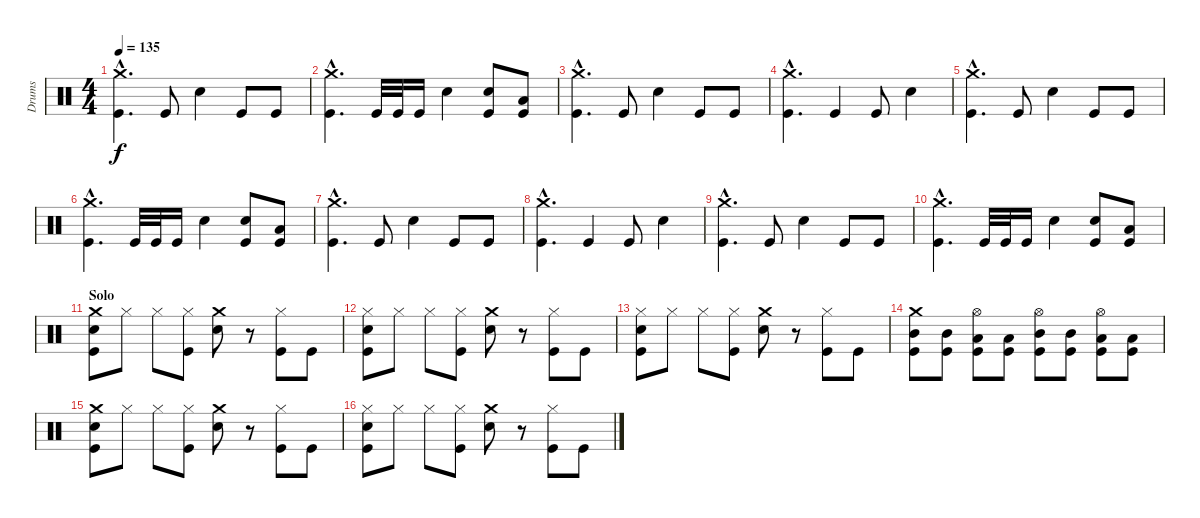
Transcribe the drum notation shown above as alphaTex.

\track ("Drums" "Drums") {instrument percussion}
\staff {score}
\articulation defaults
\ts (4 4)
\tempo 135
\clef neutral
\ks c
("Crash medium (hit)"{hac} "Kick (hit)"{hac}).4{d dy f} "Kick (hit)".8 "Snare (hit) 2".4 "Kick (hit)".8 "Kick (hit)".8 |
("Crash medium (hit)"{hac} "Kick (hit)"{hac}).4{d} "Kick (hit)".32 "Kick (hit)".32 "Kick (hit)".16 "Snare (hit) 2".4 ("Snare (hit) 2" "Kick (hit)").8 ("Low Tom (hit)" "Kick (hit)").8 |
("Crash medium (hit)"{hac} "Kick (hit)"{hac}).4{d} "Kick (hit)".8 "Snare (hit) 2".4 "Kick (hit)".8 "Kick (hit)".8 |
("Crash medium (hit)"{hac} "Kick (hit)"{hac}).4{d} "Kick (hit)".4 "Kick (hit)".8 "Snare (hit) 2".4 |
("Crash medium (hit)"{hac} "Kick (hit)"{hac}).4{d} "Kick (hit)".8 "Snare (hit) 2".4 "Kick (hit)".8 "Kick (hit)".8 |
("Crash medium (hit)"{hac} "Kick (hit)"{hac}).4{d} "Kick (hit)".32 "Kick (hit)".32 "Kick (hit)".16 "Snare (hit) 2".4 ("Snare (hit) 2" "Kick (hit)").8 ("Low Tom (hit)" "Kick (hit)").8 |
("Crash medium (hit)"{hac} "Kick (hit)"{hac}).4{d} "Kick (hit)".8 "Snare (hit) 2".4 "Kick (hit)".8 "Kick (hit)".8 |
("Crash medium (hit)"{hac} "Kick (hit)"{hac}).4{d} "Kick (hit)".4 "Kick (hit)".8 "Snare (hit) 2".4 |
("Crash medium (hit)"{hac} "Kick (hit)"{hac}).4{d} "Kick (hit)".8 "Snare (hit) 2".4 "Kick (hit)".8 "Kick (hit)".8 |
("Crash medium (hit)"{hac} "Kick (hit)"{hac}).4{d} "Kick (hit)".32 "Kick (hit)".32 "Kick (hit)".16 "Snare (hit) 2".4 ("Snare (hit) 2" "Kick (hit)").8 ("Low Tom (hit)" "Kick (hit)").8 |
\section ("" "Solo")
("Crash medium (hit)" "Snare (hit) 2" "Kick (hit)").8 "Hi-Hat (closed)".8 "Hi-Hat (closed)".8 ("Hi-Hat (closed)" "Kick (hit)").8 ("Crash medium (hit)" "Snare (hit) 2").8 r.8 ("Hi-Hat (closed)" "Kick (hit)").8 "Kick (hit)".8 |
("Hi-Hat (closed)" "Snare (hit) 2" "Kick (hit)").8 "Hi-Hat (closed)".8 "Hi-Hat (closed)".8 ("Hi-Hat (closed)" "Kick (hit)").8 ("Crash medium (hit)" "Snare (hit) 2").8 r.8 ("Hi-Hat (closed)" "Kick (hit)").8 "Kick (hit)".8 |
("Hi-Hat (closed)" "Snare (hit) 2" "Kick (hit)").8 "Hi-Hat (closed)".8 "Hi-Hat (closed)".8 ("Hi-Hat (closed)" "Kick (hit)").8 ("Crash medium (hit)" "Snare (hit) 2").8 r.8 ("Hi-Hat (closed)" "Kick (hit)").8 "Kick (hit)".8 |
("Crash medium (hit)" "Mid Tom (hit)" "Kick (hit)").8 ("Mid Tom (hit)" "Kick (hit)").8 ("Hi-Hat (open)" "Low Tom (hit)" "Kick (hit)").8 ("Low Tom (hit)" "Kick (hit)").8 ("Hi-Hat (open)" "Mid Tom (hit)" "Kick (hit)").8 ("Mid Tom (hit)" "Kick (hit)").8 ("Hi-Hat (open)" "Low Tom (hit)" "Kick (hit)").8 ("Low Tom (hit)" "Kick (hit)").8 |
("Crash medium (hit)" "Snare (hit) 2" "Kick (hit)").8 "Hi-Hat (closed)".8 "Hi-Hat (closed)".8 ("Hi-Hat (closed)" "Kick (hit)").8 ("Crash medium (hit)" "Snare (hit) 2").8 r.8 ("Hi-Hat (closed)" "Kick (hit)").8 "Kick (hit)".8 |
("Hi-Hat (closed)" "Snare (hit) 2" "Kick (hit)").8 "Hi-Hat (closed)".8 "Hi-Hat (closed)".8 ("Hi-Hat (closed)" "Kick (hit)").8 ("Crash medium (hit)" "Snare (hit) 2").8 r.8 ("Hi-Hat (closed)" "Kick (hit)").8 "Kick (hit)".8
